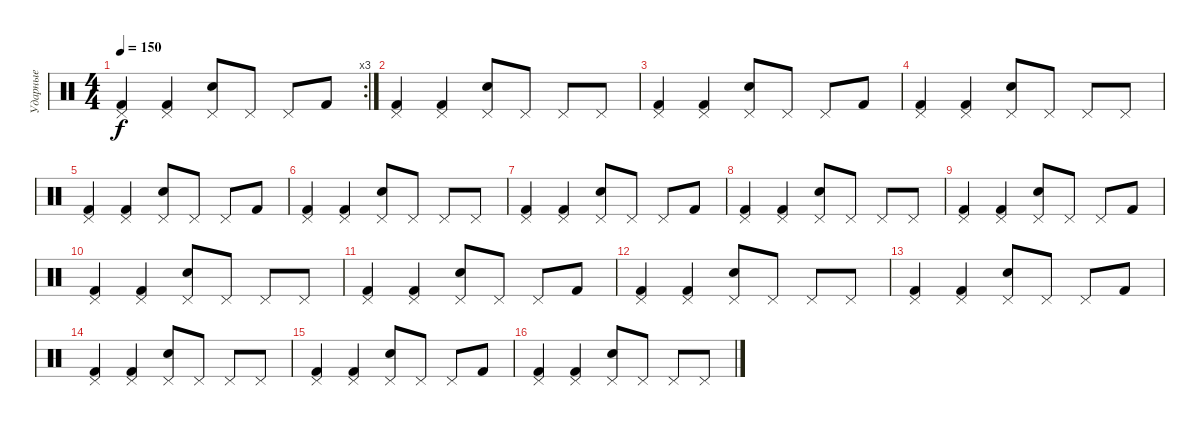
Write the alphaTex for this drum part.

\track ("Ударные" "Ударные") {instrument percussion}
\staff {score}
\articulation defaults
\rc 3
\ts (4 4)
\tempo 150
\clef neutral
\ks c
("Pedal Hi-Hat (hit)" "Kick (hit) 2").4{dy f} ("Pedal Hi-Hat (hit)" "Kick (hit) 2").4 ("Pedal Hi-Hat (hit)" "Snare (hit) 2").8 "Pedal Hi-Hat (hit)".8 "Pedal Hi-Hat (hit)".8 "Kick (hit) 2".8 |
("Pedal Hi-Hat (hit)" "Kick (hit) 2").4 ("Pedal Hi-Hat (hit)" "Kick (hit) 2").4 ("Pedal Hi-Hat (hit)" "Snare (hit) 2").8 "Pedal Hi-Hat (hit)".8 "Pedal Hi-Hat (hit)".8 "Pedal Hi-Hat (hit)".8 |
("Pedal Hi-Hat (hit)" "Kick (hit) 2").4 ("Pedal Hi-Hat (hit)" "Kick (hit) 2").4 ("Pedal Hi-Hat (hit)" "Snare (hit) 2").8 "Pedal Hi-Hat (hit)".8 "Pedal Hi-Hat (hit)".8 "Kick (hit) 2".8 |
("Pedal Hi-Hat (hit)" "Kick (hit) 2").4 ("Pedal Hi-Hat (hit)" "Kick (hit) 2").4 ("Pedal Hi-Hat (hit)" "Snare (hit) 2").8 "Pedal Hi-Hat (hit)".8 "Pedal Hi-Hat (hit)".8 "Pedal Hi-Hat (hit)".8 |
("Pedal Hi-Hat (hit)" "Kick (hit) 2").4 ("Pedal Hi-Hat (hit)" "Kick (hit) 2").4 ("Pedal Hi-Hat (hit)" "Snare (hit) 2").8 "Pedal Hi-Hat (hit)".8 "Pedal Hi-Hat (hit)".8 "Kick (hit) 2".8 |
("Pedal Hi-Hat (hit)" "Kick (hit) 2").4 ("Pedal Hi-Hat (hit)" "Kick (hit) 2").4 ("Pedal Hi-Hat (hit)" "Snare (hit) 2").8 "Pedal Hi-Hat (hit)".8 "Pedal Hi-Hat (hit)".8 "Pedal Hi-Hat (hit)".8 |
("Pedal Hi-Hat (hit)" "Kick (hit) 2").4 ("Pedal Hi-Hat (hit)" "Kick (hit) 2").4 ("Pedal Hi-Hat (hit)" "Snare (hit) 2").8 "Pedal Hi-Hat (hit)".8 "Pedal Hi-Hat (hit)".8 "Kick (hit) 2".8 |
("Pedal Hi-Hat (hit)" "Kick (hit) 2").4 ("Pedal Hi-Hat (hit)" "Kick (hit) 2").4 ("Pedal Hi-Hat (hit)" "Snare (hit) 2").8 "Pedal Hi-Hat (hit)".8 "Pedal Hi-Hat (hit)".8 "Pedal Hi-Hat (hit)".8 |
("Pedal Hi-Hat (hit)" "Kick (hit) 2").4 ("Pedal Hi-Hat (hit)" "Kick (hit) 2").4 ("Pedal Hi-Hat (hit)" "Snare (hit) 2").8 "Pedal Hi-Hat (hit)".8 "Pedal Hi-Hat (hit)".8 "Kick (hit) 2".8 |
("Pedal Hi-Hat (hit)" "Kick (hit) 2").4 ("Pedal Hi-Hat (hit)" "Kick (hit) 2").4 ("Pedal Hi-Hat (hit)" "Snare (hit) 2").8 "Pedal Hi-Hat (hit)".8 "Pedal Hi-Hat (hit)".8 "Pedal Hi-Hat (hit)".8 |
("Pedal Hi-Hat (hit)" "Kick (hit) 2").4 ("Pedal Hi-Hat (hit)" "Kick (hit) 2").4 ("Pedal Hi-Hat (hit)" "Snare (hit) 2").8 "Pedal Hi-Hat (hit)".8 "Pedal Hi-Hat (hit)".8 "Kick (hit) 2".8 |
("Pedal Hi-Hat (hit)" "Kick (hit) 2").4 ("Pedal Hi-Hat (hit)" "Kick (hit) 2").4 ("Pedal Hi-Hat (hit)" "Snare (hit) 2").8 "Pedal Hi-Hat (hit)".8 "Pedal Hi-Hat (hit)".8 "Pedal Hi-Hat (hit)".8 |
("Pedal Hi-Hat (hit)" "Kick (hit) 2").4 ("Pedal Hi-Hat (hit)" "Kick (hit) 2").4 ("Pedal Hi-Hat (hit)" "Snare (hit) 2").8 "Pedal Hi-Hat (hit)".8 "Pedal Hi-Hat (hit)".8 "Kick (hit) 2".8 |
("Pedal Hi-Hat (hit)" "Kick (hit) 2").4 ("Pedal Hi-Hat (hit)" "Kick (hit) 2").4 ("Pedal Hi-Hat (hit)" "Snare (hit) 2").8 "Pedal Hi-Hat (hit)".8 "Pedal Hi-Hat (hit)".8 "Pedal Hi-Hat (hit)".8 |
("Pedal Hi-Hat (hit)" "Kick (hit) 2").4 ("Pedal Hi-Hat (hit)" "Kick (hit) 2").4 ("Pedal Hi-Hat (hit)" "Snare (hit) 2").8 "Pedal Hi-Hat (hit)".8 "Pedal Hi-Hat (hit)".8 "Kick (hit) 2".8 |
("Pedal Hi-Hat (hit)" "Kick (hit) 2").4 ("Pedal Hi-Hat (hit)" "Kick (hit) 2").4 ("Pedal Hi-Hat (hit)" "Snare (hit) 2").8 "Pedal Hi-Hat (hit)".8 "Pedal Hi-Hat (hit)".8 "Pedal Hi-Hat (hit)".8
